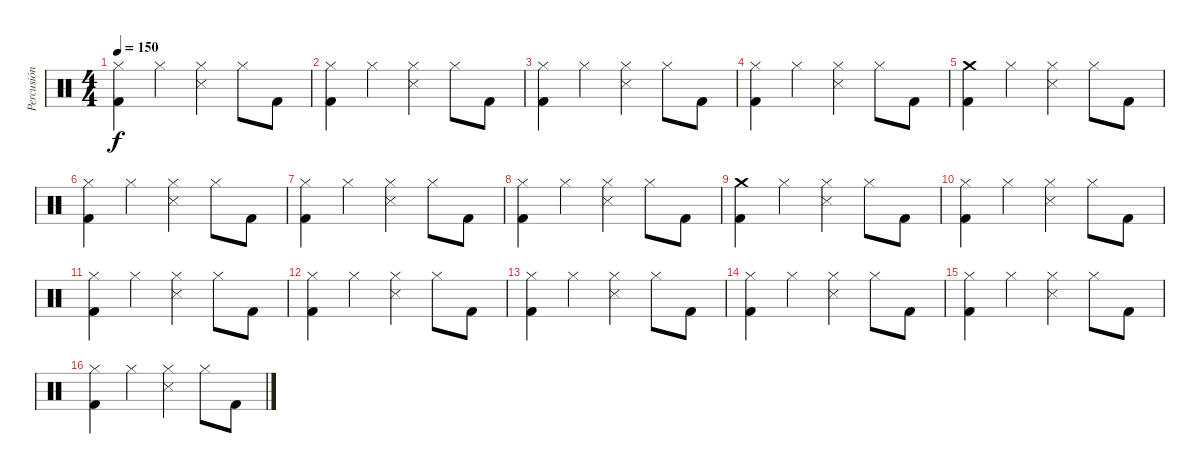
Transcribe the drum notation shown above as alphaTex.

\track ("Percusión" "Percusión") {instrument percussion}
\staff {score}
\articulation defaults
\ts (4 4)
\tempo 150
\clef neutral
\ks c
("Hi-Hat (closed)" "Kick (hit) 2").4{dy f} "Hi-Hat (closed)".4 ("Hi-Hat (closed)" "Metronome (hit)").4 "Hi-Hat (closed)".8 "Kick (hit) 2".8 |
("Hi-Hat (closed)" "Kick (hit) 2").4 "Hi-Hat (closed)".4 ("Hi-Hat (closed)" "Metronome (hit)").4 "Hi-Hat (closed)".8 "Kick (hit) 2".8 |
("Hi-Hat (closed)" "Kick (hit) 2").4 "Hi-Hat (closed)".4 ("Hi-Hat (closed)" "Metronome (hit)").4 "Hi-Hat (closed)".8 "Kick (hit) 2".8 |
("Hi-Hat (closed)" "Kick (hit) 2").4 "Hi-Hat (closed)".4 ("Hi-Hat (closed)" "Metronome (hit)").4 "Hi-Hat (closed)".8 "Kick (hit) 2".8 |
("Crash medium (hit)" "Kick (hit) 2").4 "Hi-Hat (closed)".4 ("Hi-Hat (closed)" "Metronome (hit)").4 "Hi-Hat (closed)".8 "Kick (hit) 2".8 |
("Hi-Hat (closed)" "Kick (hit) 2").4 "Hi-Hat (closed)".4 ("Hi-Hat (closed)" "Metronome (hit)").4 "Hi-Hat (closed)".8 "Kick (hit) 2".8 |
("Hi-Hat (closed)" "Kick (hit) 2").4 "Hi-Hat (closed)".4 ("Hi-Hat (closed)" "Metronome (hit)").4 "Hi-Hat (closed)".8 "Kick (hit) 2".8 |
("Hi-Hat (closed)" "Kick (hit) 2").4 "Hi-Hat (closed)".4 ("Hi-Hat (closed)" "Metronome (hit)").4 "Hi-Hat (closed)".8 "Kick (hit) 2".8 |
("Crash medium (hit)" "Kick (hit) 2").4 "Hi-Hat (closed)".4 ("Hi-Hat (closed)" "Metronome (hit)").4 "Hi-Hat (closed)".8 "Kick (hit) 2".8 |
("Hi-Hat (closed)" "Kick (hit) 2").4 "Hi-Hat (closed)".4 ("Hi-Hat (closed)" "Metronome (hit)").4 "Hi-Hat (closed)".8 "Kick (hit) 2".8 |
("Hi-Hat (closed)" "Kick (hit) 2").4 "Hi-Hat (closed)".4 ("Hi-Hat (closed)" "Metronome (hit)").4 "Hi-Hat (closed)".8 "Kick (hit) 2".8 |
("Hi-Hat (closed)" "Kick (hit) 2").4 "Hi-Hat (closed)".4 ("Hi-Hat (closed)" "Metronome (hit)").4 "Hi-Hat (closed)".8 "Kick (hit) 2".8 |
("Hi-Hat (closed)" "Kick (hit) 2").4 "Hi-Hat (closed)".4 ("Hi-Hat (closed)" "Metronome (hit)").4 "Hi-Hat (closed)".8 "Kick (hit) 2".8 |
("Hi-Hat (closed)" "Kick (hit) 2").4 "Hi-Hat (closed)".4 ("Hi-Hat (closed)" "Metronome (hit)").4 "Hi-Hat (closed)".8 "Kick (hit) 2".8 |
("Hi-Hat (closed)" "Kick (hit) 2").4 "Hi-Hat (closed)".4 ("Hi-Hat (closed)" "Metronome (hit)").4 "Hi-Hat (closed)".8 "Kick (hit) 2".8 |
("Hi-Hat (closed)" "Kick (hit) 2").4 "Hi-Hat (closed)".4 ("Hi-Hat (closed)" "Metronome (hit)").4 "Hi-Hat (closed)".8 "Kick (hit) 2".8
